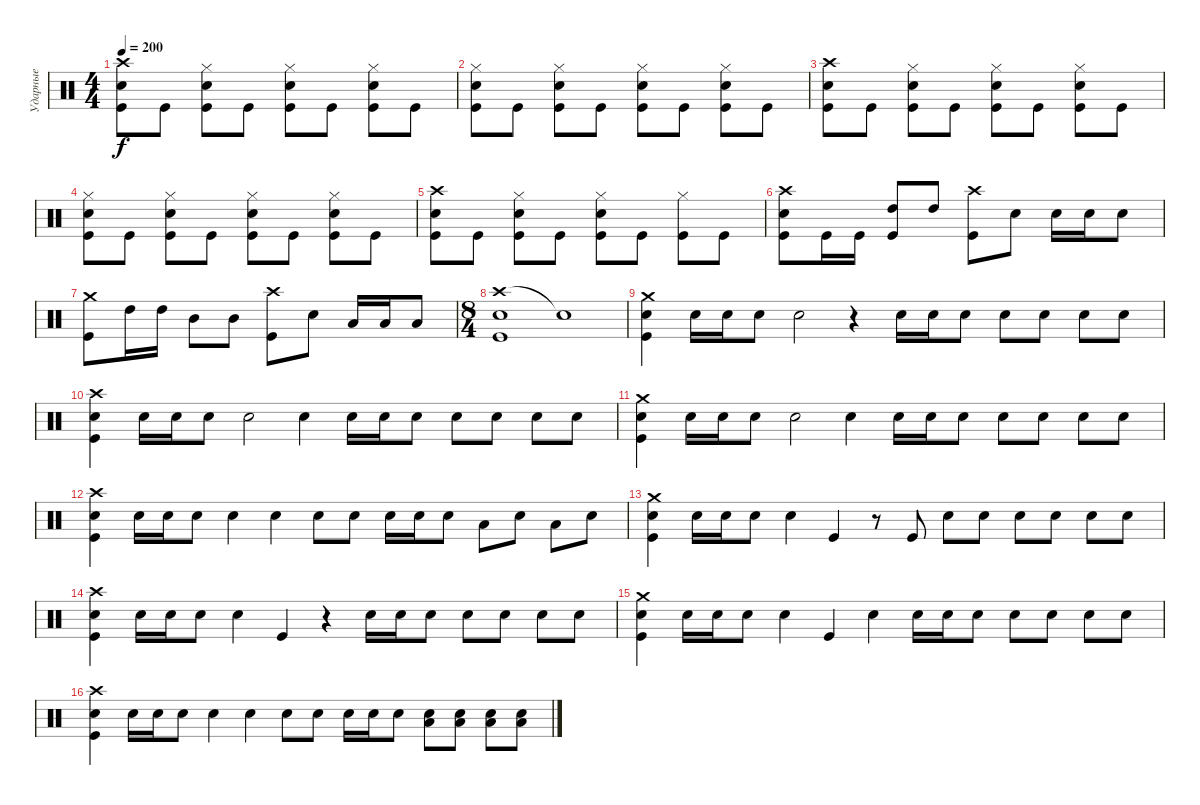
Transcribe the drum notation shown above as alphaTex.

\track ("Ударные" "Ударные") {instrument percussion}
\staff {score}
\articulation defaults
\ts (4 4)
\tempo 200
\clef neutral
\ks c
("Crash high (hit)" "Electric Snare (hit)" "Kick (hit)").8{dy f} "Kick (hit)".8 ("Hi-Hat (closed)" "Electric Snare (hit)" "Kick (hit)").8 "Kick (hit)".8 ("Hi-Hat (closed)" "Electric Snare (hit)" "Kick (hit)").8 "Kick (hit)".8 ("Hi-Hat (closed)" "Electric Snare (hit)" "Kick (hit)").8 "Kick (hit)".8 |
("Hi-Hat (closed)" "Electric Snare (hit)" "Kick (hit)").8 "Kick (hit)".8 ("Hi-Hat (closed)" "Electric Snare (hit)" "Kick (hit)").8 "Kick (hit)".8 ("Hi-Hat (closed)" "Electric Snare (hit)" "Kick (hit)").8 "Kick (hit)".8 ("Hi-Hat (closed)" "Electric Snare (hit)" "Kick (hit)").8 "Kick (hit)".8 |
("Crash high (hit)" "Electric Snare (hit)" "Kick (hit)").8 "Kick (hit)".8 ("Hi-Hat (closed)" "Electric Snare (hit)" "Kick (hit)").8 "Kick (hit)".8 ("Hi-Hat (closed)" "Electric Snare (hit)" "Kick (hit)").8 "Kick (hit)".8 ("Hi-Hat (closed)" "Electric Snare (hit)" "Kick (hit)").8 "Kick (hit)".8 |
("Hi-Hat (closed)" "Electric Snare (hit)" "Kick (hit)").8 "Kick (hit)".8 ("Hi-Hat (closed)" "Electric Snare (hit)" "Kick (hit)").8 "Kick (hit)".8 ("Hi-Hat (closed)" "Electric Snare (hit)" "Kick (hit)").8 "Kick (hit)".8 ("Hi-Hat (closed)" "Electric Snare (hit)" "Kick (hit)").8 "Kick (hit)".8 |
("Crash high (hit)" "Electric Snare (hit)" "Kick (hit)").8 "Kick (hit)".8 ("Hi-Hat (closed)" "Electric Snare (hit)" "Kick (hit)").8 "Kick (hit)".8 ("Hi-Hat (closed)" "Electric Snare (hit)" "Kick (hit)").8 "Kick (hit)".8 ("Hi-Hat (closed)" "Kick (hit)").8 "Kick (hit)".8 |
("Crash high (hit)" "Electric Snare (hit)" "Kick (hit)").8 "Kick (hit)".16 "Kick (hit)".16 ("High Tom (hit)" "Kick (hit)").8 "High Tom (hit)".8 ("Crash high (hit)" "Kick (hit)").8 "Electric Snare (hit)".8 "Electric Snare (hit)".16 "Electric Snare (hit)".16 "Electric Snare (hit)".8 |
("Crash medium (hit)" "Kick (hit)").8 "High Tom (hit)".16 "High Tom (hit)".16 "Mid Tom (hit)".8 "Mid Tom (hit)".8 ("Crash high (hit)" "Kick (hit)").8 "Electric Snare (hit)".8 "Low Tom (hit)".16 "Low Tom (hit)".16 "Low Tom (hit)".8 |
\ts (8 4)
("Crash high (hit)" "Electric Snare (hit)" "Kick (hit)").1 "Snare (hit)"{t}.1 |
("Crash medium (hit)" "Electric Snare (hit)" "Kick (hit)").4 "Electric Snare (hit)".16 "Electric Snare (hit)".16 "Electric Snare (hit)".8 "Electric Snare (hit)".2 r.4 "Electric Snare (hit)".16 "Electric Snare (hit)".16 "Electric Snare (hit)".8 "Electric Snare (hit)".8 "Electric Snare (hit)".8 "Electric Snare (hit)".8 "Electric Snare (hit)".8 |
("Crash high (hit)" "Electric Snare (hit)" "Kick (hit)").4 "Electric Snare (hit)".16 "Electric Snare (hit)".16 "Electric Snare (hit)".8 "Electric Snare (hit)".2 "Electric Snare (hit)".4 "Electric Snare (hit)".16 "Electric Snare (hit)".16 "Electric Snare (hit)".8 "Electric Snare (hit)".8 "Electric Snare (hit)".8 "Electric Snare (hit)".8 "Electric Snare (hit)".8 |
("Crash medium (hit)" "Electric Snare (hit)" "Kick (hit)").4 "Electric Snare (hit)".16 "Electric Snare (hit)".16 "Electric Snare (hit)".8 "Electric Snare (hit)".2 "Electric Snare (hit)".4 "Electric Snare (hit)".16 "Electric Snare (hit)".16 "Electric Snare (hit)".8 "Electric Snare (hit)".8 "Electric Snare (hit)".8 "Electric Snare (hit)".8 "Electric Snare (hit)".8 |
("Crash high (hit)" "Electric Snare (hit)" "Kick (hit)").4 "Electric Snare (hit)".16 "Electric Snare (hit)".16 "Electric Snare (hit)".8 "Electric Snare (hit)".4 "Electric Snare (hit)".4 "Electric Snare (hit)".8 "Electric Snare (hit)".8 "Electric Snare (hit)".16 "Electric Snare (hit)".16 "Electric Snare (hit)".8 "Low Tom (hit)".8 "Electric Snare (hit)".8 "Low Tom (hit)".8 "Electric Snare (hit)".8 |
("Crash medium (hit)" "Electric Snare (hit)" "Kick (hit)").4 "Electric Snare (hit)".16 "Electric Snare (hit)".16 "Electric Snare (hit)".8 "Electric Snare (hit)".4 "Kick (hit)".4 r.8 "Kick (hit)".8 "Electric Snare (hit)".8 "Electric Snare (hit)".8 "Electric Snare (hit)".8 "Electric Snare (hit)".8 "Electric Snare (hit)".8 "Electric Snare (hit)".8 |
("Crash high (hit)" "Electric Snare (hit)" "Kick (hit)").4 "Electric Snare (hit)".16 "Electric Snare (hit)".16 "Electric Snare (hit)".8 "Electric Snare (hit)".4 "Kick (hit)".4 r.4 "Electric Snare (hit)".16 "Electric Snare (hit)".16 "Electric Snare (hit)".8 "Electric Snare (hit)".8 "Electric Snare (hit)".8 "Electric Snare (hit)".8 "Electric Snare (hit)".8 |
("Crash medium (hit)" "Electric Snare (hit)" "Kick (hit)").4 "Electric Snare (hit)".16 "Electric Snare (hit)".16 "Electric Snare (hit)".8 "Electric Snare (hit)".4 "Kick (hit)".4 "Electric Snare (hit)".4 "Electric Snare (hit)".16 "Electric Snare (hit)".16 "Electric Snare (hit)".8 "Electric Snare (hit)".8 "Electric Snare (hit)".8 "Electric Snare (hit)".8 "Electric Snare (hit)".8 |
("Crash high (hit)" "Electric Snare (hit)" "Kick (hit)").4 "Electric Snare (hit)".16 "Electric Snare (hit)".16 "Electric Snare (hit)".8 "Electric Snare (hit)".4 "Electric Snare (hit)".4 "Electric Snare (hit)".8 "Electric Snare (hit)".8 "Electric Snare (hit)".16 "Electric Snare (hit)".16 "Electric Snare (hit)".8 ("Electric Snare (hit)" "Low Tom (hit)").8 ("Electric Snare (hit)" "Low Tom (hit)").8 ("Electric Snare (hit)" "Low Tom (hit)").8 ("Electric Snare (hit)" "Low Tom (hit)").8
